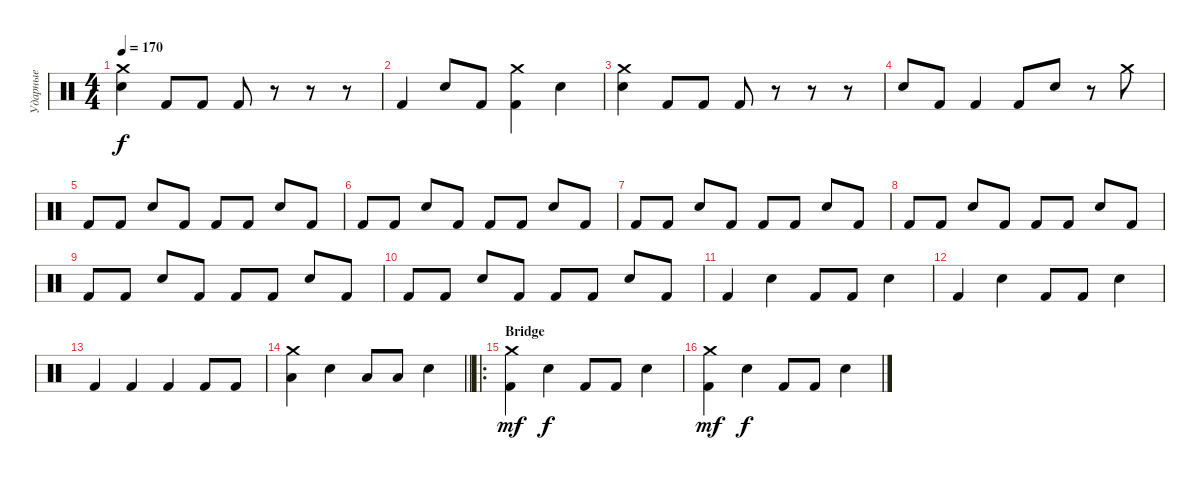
\track ("Ударные" "Ударные") {instrument percussion}
\staff {score}
\articulation defaults
\ts (4 4)
\tempo 170
\clef neutral
\ks c
("Snare (hit) 2" "Crash medium (hit)").4{dy f} "Kick (hit) 2".8 "Kick (hit) 2".8 "Kick (hit) 2".8 r.8 r.8 r.8 |
"Kick (hit) 2".4 "Snare (hit) 2".8 "Kick (hit) 2".8 ("Kick (hit) 2" "Crash medium (hit)").4 "Snare (hit) 2".4 |
("Snare (hit) 2" "Crash medium (hit)").4 "Kick (hit) 2".8 "Kick (hit) 2".8 "Kick (hit) 2".8 r.8 r.8 r.8 |
"Snare (hit) 2".8 "Kick (hit) 2".8 "Kick (hit) 2".4 "Kick (hit) 2".8 "Snare (hit) 2".8 r.8 "Crash medium (hit)".8 |
"Kick (hit) 2".8 "Kick (hit) 2".8 "Snare (hit) 2".8 "Kick (hit) 2".8 "Kick (hit) 2".8 "Kick (hit) 2".8 "Snare (hit) 2".8 "Kick (hit) 2".8 |
"Kick (hit) 2".8 "Kick (hit) 2".8 "Snare (hit) 2".8 "Kick (hit) 2".8 "Kick (hit) 2".8 "Kick (hit) 2".8 "Snare (hit) 2".8 "Kick (hit) 2".8 |
"Kick (hit) 2".8 "Kick (hit) 2".8 "Snare (hit) 2".8 "Kick (hit) 2".8 "Kick (hit) 2".8 "Kick (hit) 2".8 "Snare (hit) 2".8 "Kick (hit) 2".8 |
"Kick (hit) 2".8 "Kick (hit) 2".8 "Snare (hit) 2".8 "Kick (hit) 2".8 "Kick (hit) 2".8 "Kick (hit) 2".8 "Snare (hit) 2".8 "Kick (hit) 2".8 |
"Kick (hit) 2".8 "Kick (hit) 2".8 "Snare (hit) 2".8 "Kick (hit) 2".8 "Kick (hit) 2".8 "Kick (hit) 2".8 "Snare (hit) 2".8 "Kick (hit) 2".8 |
"Kick (hit) 2".8 "Kick (hit) 2".8 "Snare (hit) 2".8 "Kick (hit) 2".8 "Kick (hit) 2".8 "Kick (hit) 2".8 "Snare (hit) 2".8 "Kick (hit) 2".8 |
"Kick (hit) 2".4 "Snare (hit) 2".4 "Kick (hit) 2".8 "Kick (hit) 2".8 "Snare (hit) 2".4 |
"Kick (hit) 2".4 "Snare (hit) 2".4 "Kick (hit) 2".8 "Kick (hit) 2".8 "Snare (hit) 2".4 |
"Kick (hit) 2".4 "Kick (hit) 2".4 "Kick (hit) 2".4 "Kick (hit) 2".8 "Kick (hit) 2".8 |
\barLineRight lightlight
("Crash medium (hit)" "Low Floor Tom (hit)").4 "Snare (hit) 2".4 "Low Floor Tom (hit)".8 "Low Floor Tom (hit)".8 "Snare (hit) 2".4 |
\ro
\section ("" "Bridge")
("Kick (hit) 2" "Crash medium (hit)").4{dy mf} "Snare (hit) 2".4{dy f} "Kick (hit) 2".8 "Kick (hit) 2".8 "Snare (hit) 2".4 |
("Kick (hit) 2" "Crash medium (hit)").4{dy mf} "Snare (hit) 2".4{dy f} "Kick (hit) 2".8 "Kick (hit) 2".8 "Snare (hit) 2".4
